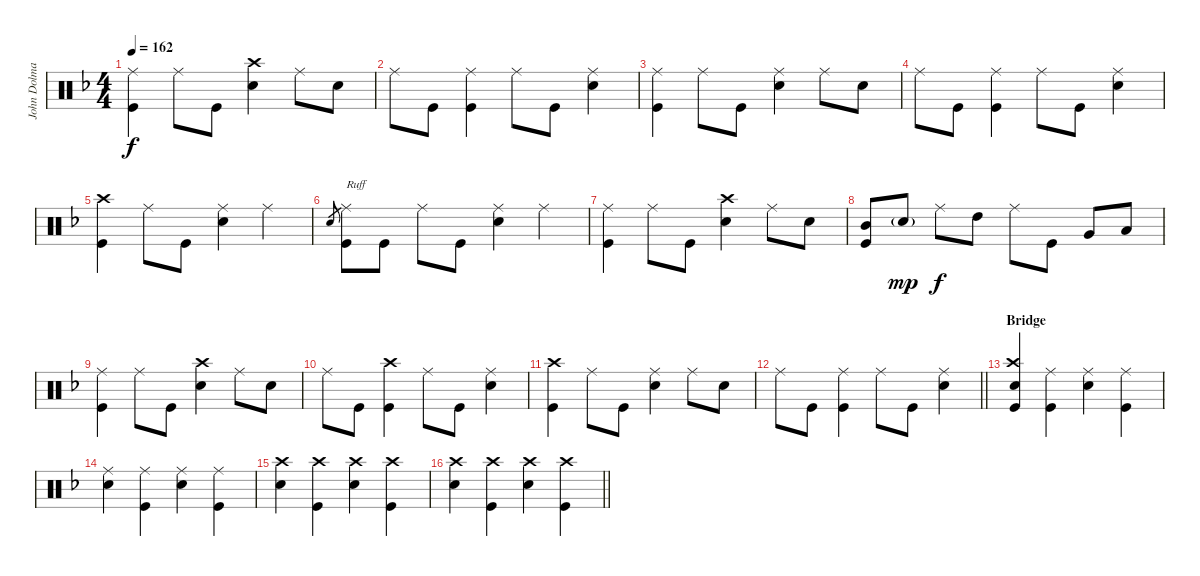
\track ("John Dolmayan" "John Dolma") {instrument percussion}
\staff {score}
\articulation defaults
\ts (4 4)
\tempo 162
\clef neutral
\ks dminor
("Ride (middle)" "Kick (hit)").4{dy f} "Ride (middle)".8 "Kick (hit)".8 ("Crash high (hit)" "Snare (hit) 2").4 "Ride (middle)".8 "Snare (hit) 2".8 |
"Ride (middle)".8 "Kick (hit)".8 ("Ride (middle)" "Kick (hit)").4 "Ride (middle)".8 "Kick (hit)".8 ("Ride (middle)" "Snare (hit) 2").4 |
("Ride (middle)" "Kick (hit)").4 "Ride (middle)".8 "Kick (hit)".8 ("Ride (middle)" "Snare (hit) 2").4 "Ride (middle)".8 "Snare (hit) 2".8 |
"Ride (middle)".8 "Kick (hit)".8 ("Ride (middle)" "Kick (hit)").4 "Ride (middle)".8 "Kick (hit)".8 ("Ride (middle)" "Snare (hit) 2").4 |
("Crash high (hit)" "Kick (hit)").4 "Ride (middle)".8 "Kick (hit)".8 ("Ride (middle)" "Snare (hit) 2").4 "Ride (middle)".4 |
"Snare (hit) 2".8{gr} ("Ride (middle)" "Kick (hit)").8{txt "Ruff"} "Kick (hit)".8 "Ride (middle)".8 "Kick (hit)".8 ("Ride (middle)" "Snare (hit) 2").4 "Ride (middle)".4 |
("Ride (middle)" "Kick (hit)").4 "Ride (middle)".8 "Kick (hit)".8 ("Crash high (hit)" "Snare (hit) 2").4 "Ride (middle)".8 "Snare (hit) 2".8 |
("Mid Tom (hit)" "Kick (hit)").8 "Snare (hit) 2"{g}.8{dy mp} "Ride (middle)".8{dy f} "High Tom (hit)".8 "Ride (middle)".8 "Kick (hit)".8 "Very Low Tom (hit)".8 "Low Floor Tom (hit)".8 |
("Ride (middle)" "Kick (hit)").4 "Ride (middle)".8 "Kick (hit)".8 ("Crash high (hit)" "Snare (hit) 2").4 "Ride (middle)".8 "Snare (hit) 2".8 |
"Ride (middle)".8 "Kick (hit)".8 ("Crash high (hit)" "Kick (hit)").4 "Ride (middle)".8 "Kick (hit)".8 ("Ride (middle)" "Snare (hit) 2").4 |
("Crash high (hit)" "Kick (hit)").4 "Ride (middle)".8 "Kick (hit)".8 ("Ride (middle)" "Snare (hit) 2").4 "Ride (middle)".8 "Snare (hit) 2".8 |
\barLineRight lightlight "Ride (middle)".8 "Kick (hit)".8
("Ride (middle)" "Kick (hit)").4 "Ride (middle)".8 "Kick (hit)".8 ("Ride (middle)" "Snare (hit) 2").4 |
\section ("" "Bridge")
("Crash high (hit)" "Kick (hit)" "Snare (hit) 2").4 ("Kick (hit)" "Ride (middle)").4 ("Ride (middle)" "Snare (hit) 2").4 ("Ride (middle)" "Kick (hit)").4 |
("Ride (middle)" "Snare (hit) 2").4 ("Ride (middle)" "Kick (hit)").4 ("Ride (middle)" "Snare (hit) 2").4 ("Ride (middle)" "Kick (hit)").4 |
("Crash high (hit)" "Snare (hit) 2").4 ("Crash high (hit)" "Kick (hit)").4 ("Crash high (hit)" "Snare (hit) 2").4 ("Crash high (hit)" "Kick (hit)").4 |
\barLineRight lightlight
("Crash high (hit)" "Snare (hit) 2").4 ("Crash high (hit)" "Kick (hit)").4 ("Crash high (hit)" "Snare (hit) 2").4 ("Crash high (hit)" "Kick (hit)").4
